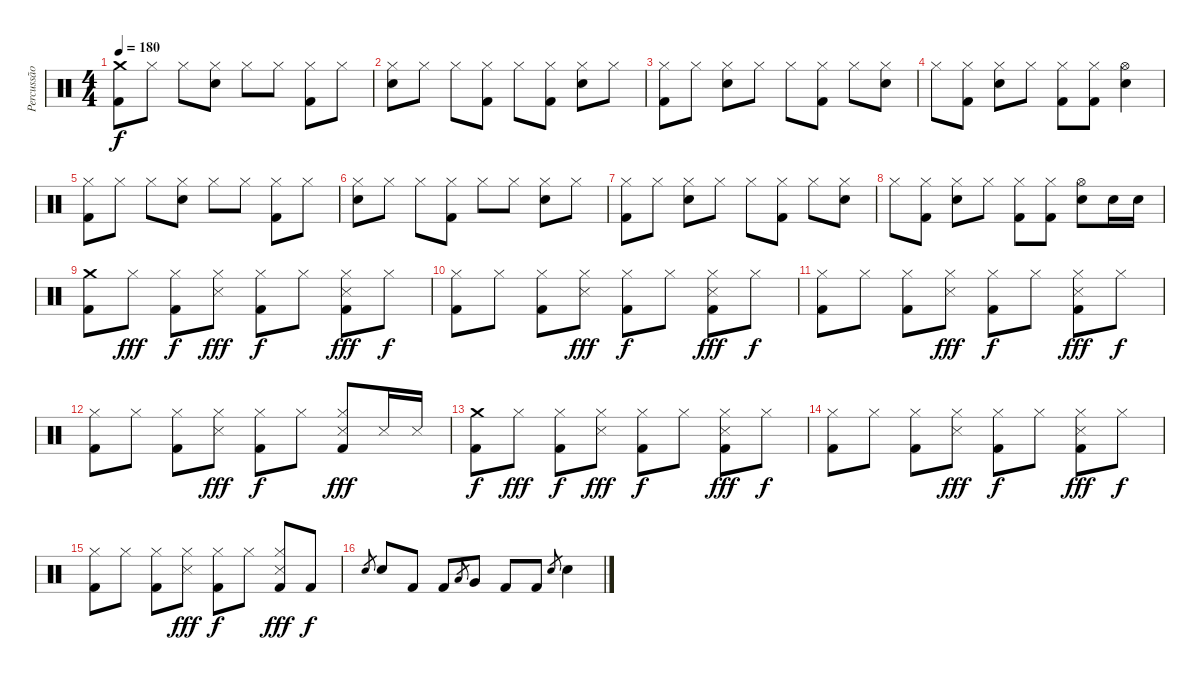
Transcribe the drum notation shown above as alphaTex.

\track ("Percussão" "Percussão") {instrument percussion}
\staff {score}
\articulation defaults
\ts (4 4)
\tempo 180
\clef neutral
\ks c
("Crash medium (hit)" "Kick (hit) 2").8{dy f} "Hi-Hat (closed)".8 "Hi-Hat (closed)".8 ("Hi-Hat (closed)" "Electric Snare (hit)").8 "Hi-Hat (closed)".8 "Hi-Hat (closed)".8 ("Hi-Hat (closed)" "Kick (hit) 2").8 "Hi-Hat (closed)".8 |
("Hi-Hat (closed)" "Electric Snare (hit)").8 "Hi-Hat (closed)".8 "Hi-Hat (closed)".8 ("Hi-Hat (closed)" "Kick (hit) 2").8 "Hi-Hat (closed)".8 ("Hi-Hat (closed)" "Kick (hit) 2").8 ("Hi-Hat (closed)" "Electric Snare (hit)").8 "Hi-Hat (closed)".8 |
("Hi-Hat (closed)" "Kick (hit) 2").8 "Hi-Hat (closed)".8 ("Hi-Hat (closed)" "Electric Snare (hit)").8 "Hi-Hat (closed)".8 "Hi-Hat (closed)".8 ("Hi-Hat (closed)" "Kick (hit) 2").8 "Hi-Hat (closed)".8 ("Hi-Hat (closed)" "Electric Snare (hit)").8 |
"Hi-Hat (closed)".8 ("Hi-Hat (closed)" "Kick (hit) 2").8 ("Hi-Hat (closed)" "Electric Snare (hit)").8 "Hi-Hat (closed)".8 ("Hi-Hat (closed)" "Kick (hit) 2").8 ("Hi-Hat (closed)" "Kick (hit) 2").8 ("Hi-Hat (open)" "Electric Snare (hit)").4 |
("Hi-Hat (closed)" "Kick (hit) 2").8 "Hi-Hat (closed)".8 "Hi-Hat (closed)".8 ("Hi-Hat (closed)" "Electric Snare (hit)").8 "Hi-Hat (closed)".8 "Hi-Hat (closed)".8 ("Hi-Hat (closed)" "Kick (hit) 2").8 "Hi-Hat (closed)".8 |
("Hi-Hat (closed)" "Electric Snare (hit)").8 "Hi-Hat (closed)".8 "Hi-Hat (closed)".8 ("Hi-Hat (closed)" "Kick (hit) 2").8 "Hi-Hat (closed)".8 "Hi-Hat (closed)".8 ("Hi-Hat (closed)" "Electric Snare (hit)").8 "Hi-Hat (closed)".8 |
("Hi-Hat (closed)" "Kick (hit) 2").8 "Hi-Hat (closed)".8 ("Hi-Hat (closed)" "Electric Snare (hit)").8 "Hi-Hat (closed)".8 "Hi-Hat (closed)".8 ("Hi-Hat (closed)" "Kick (hit) 2").8 "Hi-Hat (closed)".8 ("Hi-Hat (closed)" "Electric Snare (hit)").8 |
"Hi-Hat (closed)".8 ("Hi-Hat (closed)" "Kick (hit) 2").8 ("Hi-Hat (closed)" "Electric Snare (hit)").8 "Hi-Hat (closed)".8 ("Hi-Hat (closed)" "Kick (hit) 2").8 ("Hi-Hat (closed)" "Kick (hit) 2").8 ("Hi-Hat (open)" "Electric Snare (hit)").8 "Electric Snare (hit)".16 "Electric Snare (hit)".16 |
("Crash medium (hit)" "Kick (hit) 2").8 "Hi-Hat (closed)".8{dy fff} ("Hi-Hat (closed)" "Kick (hit) 2").8{dy f} ("Hi-Hat (closed)" "Snare (side stick) 3").8{dy fff} ("Hi-Hat (closed)" "Kick (hit) 2").8{dy f} "Hi-Hat (closed)".8 ("Hi-Hat (closed)" "Snare (side stick) 3" "Kick (hit) 2").8{dy fff} "Hi-Hat (closed)".8{dy f} |
("Hi-Hat (closed)" "Kick (hit) 2").8 "Hi-Hat (closed)".8 ("Hi-Hat (closed)" "Kick (hit) 2").8 ("Hi-Hat (closed)" "Snare (side stick) 3").8{dy fff} ("Hi-Hat (closed)" "Kick (hit) 2").8{dy f} "Hi-Hat (closed)".8 ("Hi-Hat (closed)" "Snare (side stick) 3" "Kick (hit) 2").8{dy fff} "Hi-Hat (closed)".8{dy f} |
("Hi-Hat (closed)" "Kick (hit) 2").8 "Hi-Hat (closed)".8 ("Hi-Hat (closed)" "Kick (hit) 2").8 ("Hi-Hat (closed)" "Snare (side stick) 3").8{dy fff} ("Hi-Hat (closed)" "Kick (hit) 2").8{dy f} "Hi-Hat (closed)".8 ("Hi-Hat (closed)" "Snare (side stick) 3" "Kick (hit) 2").8{dy fff} "Hi-Hat (closed)".8{dy f} |
("Hi-Hat (closed)" "Kick (hit) 2").8 "Hi-Hat (closed)".8 ("Hi-Hat (closed)" "Kick (hit) 2").8 ("Hi-Hat (closed)" "Snare (side stick) 3").8{dy fff} ("Hi-Hat (closed)" "Kick (hit) 2").8{dy f} "Hi-Hat (closed)".8 ("Hi-Hat (closed)" "Snare (side stick) 3" "Kick (hit) 2").8{dy fff} "Snare (side stick) 3".16 "Snare (side stick) 3".16 |
("Crash medium (hit)" "Kick (hit) 2").8{dy f} "Hi-Hat (closed)".8{dy fff} ("Hi-Hat (closed)" "Kick (hit) 2").8{dy f} ("Hi-Hat (closed)" "Snare (side stick) 3").8{dy fff} ("Hi-Hat (closed)" "Kick (hit) 2").8{dy f} "Hi-Hat (closed)".8 ("Hi-Hat (closed)" "Snare (side stick) 3" "Kick (hit) 2").8{dy fff} "Hi-Hat (closed)".8{dy f} |
("Hi-Hat (closed)" "Kick (hit) 2").8 "Hi-Hat (closed)".8 ("Hi-Hat (closed)" "Kick (hit) 2").8 ("Hi-Hat (closed)" "Snare (side stick) 3").8{dy fff} ("Hi-Hat (closed)" "Kick (hit) 2").8{dy f} "Hi-Hat (closed)".8 ("Hi-Hat (closed)" "Snare (side stick) 3" "Kick (hit) 2").8{dy fff} "Hi-Hat (closed)".8{dy f} |
("Hi-Hat (closed)" "Kick (hit) 2").8 "Hi-Hat (closed)".8 ("Hi-Hat (closed)" "Kick (hit) 2").8 ("Hi-Hat (closed)" "Snare (side stick) 3").8{dy fff} ("Hi-Hat (closed)" "Kick (hit) 2").8{dy f} "Hi-Hat (closed)".8 ("Hi-Hat (closed)" "Snare (side stick) 3" "Kick (hit) 2").8{dy fff} "Kick (hit) 2".8{dy f} |
"Electric Snare (hit)".8{gr} "Electric Snare (hit)".8 "Kick (hit) 2".8 "Kick (hit) 2".8 "Low Tom (hit)".8{gr} "Very Low Tom (hit)".8 "Kick (hit) 2".8 "Kick (hit) 2".8 "Electric Snare (hit)".8{gr} "Electric Snare (hit)".4
